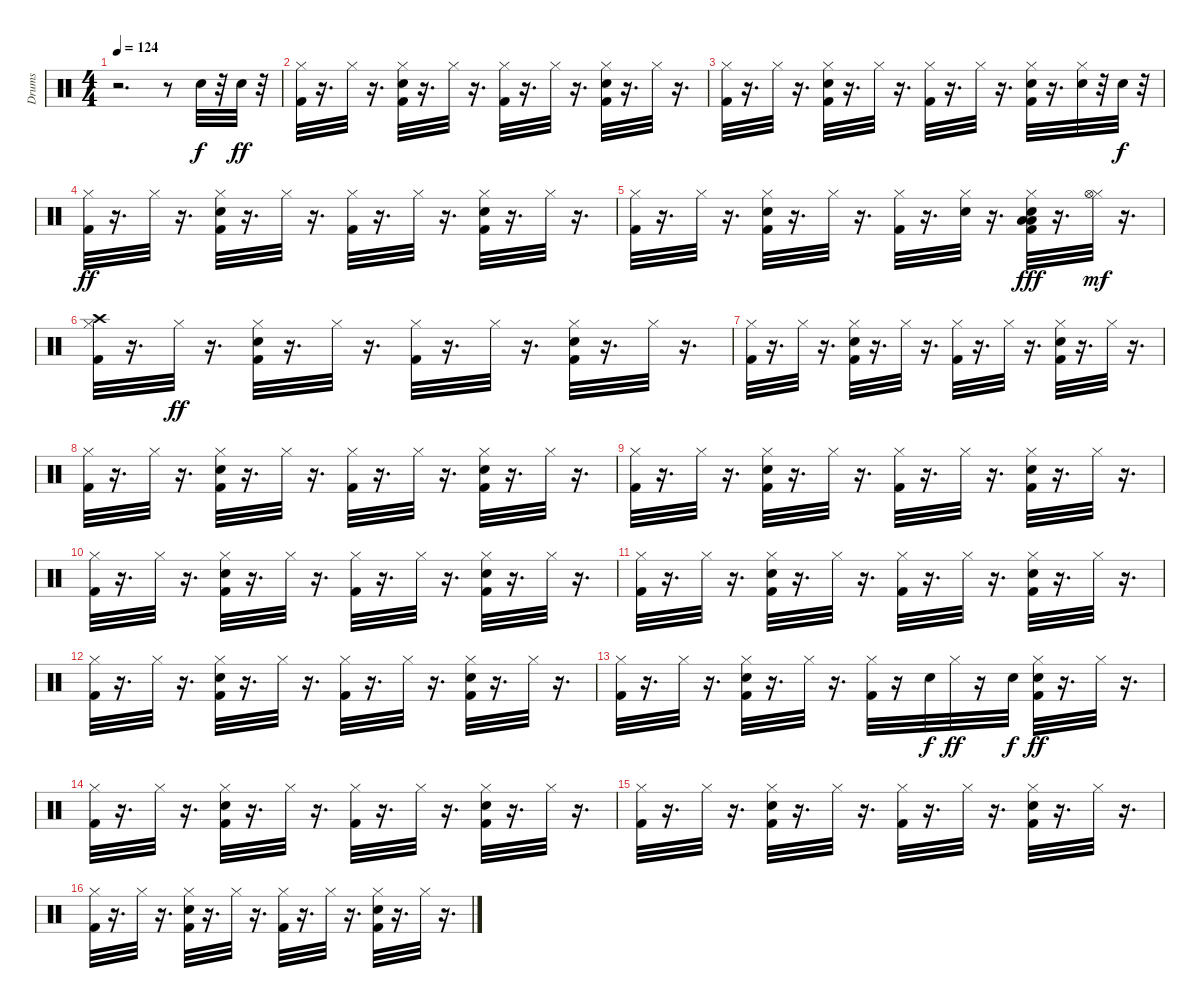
\track ("Drums" "Drums") {instrument percussion}
\staff {score}
\articulation defaults
\ts (4 4)
\tempo 124
\clef neutral
\ks c
r.2{d dy f} r.8 "Electric Snare (hit)".32 r.32 "Electric Snare (hit)".32{dy ff} r.32 |
("Kick (hit) 2" "Hi-Hat (closed)").32 r.16{d} "Hi-Hat (closed)".32 r.16{d} ("Kick (hit) 2" "Electric Snare (hit)" "Hi-Hat (closed)").32 r.16{d} "Hi-Hat (closed)".32 r.16{d} ("Kick (hit) 2" "Hi-Hat (closed)").32 r.16{d} "Hi-Hat (closed)".32 r.16{d} ("Kick (hit) 2" "Electric Snare (hit)" "Hi-Hat (closed)").32 r.16{d} "Hi-Hat (closed)".32 r.16{d} |
("Kick (hit) 2" "Hi-Hat (closed)").32 r.16{d} "Hi-Hat (closed)".32 r.16{d} ("Kick (hit) 2" "Electric Snare (hit)" "Hi-Hat (closed)").32 r.16{d} "Hi-Hat (closed)".32 r.16{d} ("Kick (hit) 2" "Hi-Hat (closed)").32 r.16{d} "Hi-Hat (closed)".32 r.16{d} ("Kick (hit) 2" "Electric Snare (hit)" "Hi-Hat (closed)").32 r.16{d} ("Electric Snare (hit)" "Hi-Hat (closed)").32 r.32 "Electric Snare (hit)".32{dy f} r.32 |
("Kick (hit) 2" "Hi-Hat (closed)").32{dy ff} r.16{d} "Hi-Hat (closed)".32 r.16{d} ("Kick (hit) 2" "Electric Snare (hit)" "Hi-Hat (closed)").32 r.16{d} "Hi-Hat (closed)".32 r.16{d} ("Kick (hit) 2" "Hi-Hat (closed)").32 r.16{d} "Hi-Hat (closed)".32 r.16{d} ("Kick (hit) 2" "Electric Snare (hit)" "Hi-Hat (closed)").32 r.16{d} "Hi-Hat (closed)".32 r.16{d} |
("Kick (hit) 2" "Hi-Hat (closed)").32 r.16{d} "Hi-Hat (closed)".32 r.16{d} ("Kick (hit) 2" "Electric Snare (hit)" "Hi-Hat (closed)").32 r.16{d} "Hi-Hat (closed)".32 r.16{d} ("Kick (hit) 2" "Hi-Hat (closed)").32 r.16{d} ("Electric Snare (hit)" "Hi-Hat (closed)").32 r.16{d} ("Kick (hit) 2" "Electric Snare (hit)" "Low Floor Tom (hit)" "Hi-Hat (closed)" "Low Tom (hit)").32{dy fff} r.16{d} ("Hi-Hat (closed)" "Hi-Hat (open)").32{dy mf} r.16{d} |
("Kick (hit) 2" "Hi-Hat (closed)" "Crash high (hit)").32 r.16{d} "Hi-Hat (closed)".32{dy ff} r.16{d} ("Kick (hit) 2" "Electric Snare (hit)" "Hi-Hat (closed)").32 r.16{d} "Hi-Hat (closed)".32 r.16{d} ("Kick (hit) 2" "Hi-Hat (closed)").32 r.16{d} "Hi-Hat (closed)".32 r.16{d} ("Kick (hit) 2" "Electric Snare (hit)" "Hi-Hat (closed)").32 r.16{d} "Hi-Hat (closed)".32 r.16{d} |
("Kick (hit) 2" "Hi-Hat (closed)").32 r.16{d} "Hi-Hat (closed)".32 r.16{d} ("Kick (hit) 2" "Electric Snare (hit)" "Hi-Hat (closed)").32 r.16{d} "Hi-Hat (closed)".32 r.16{d} ("Kick (hit) 2" "Hi-Hat (closed)").32 r.16{d} "Hi-Hat (closed)".32 r.16{d} ("Kick (hit) 2" "Electric Snare (hit)" "Hi-Hat (closed)").32 r.16{d} "Hi-Hat (closed)".32 r.16{d} |
("Kick (hit) 2" "Hi-Hat (closed)").32 r.16{d} "Hi-Hat (closed)".32 r.16{d} ("Kick (hit) 2" "Electric Snare (hit)" "Hi-Hat (closed)").32 r.16{d} "Hi-Hat (closed)".32 r.16{d} ("Kick (hit) 2" "Hi-Hat (closed)").32 r.16{d} "Hi-Hat (closed)".32 r.16{d} ("Kick (hit) 2" "Electric Snare (hit)" "Hi-Hat (closed)").32 r.16{d} "Hi-Hat (closed)".32 r.16{d} |
("Kick (hit) 2" "Hi-Hat (closed)").32 r.16{d} "Hi-Hat (closed)".32 r.16{d} ("Kick (hit) 2" "Electric Snare (hit)" "Hi-Hat (closed)").32 r.16{d} "Hi-Hat (closed)".32 r.16{d} ("Kick (hit) 2" "Hi-Hat (closed)").32 r.16{d} "Hi-Hat (closed)".32 r.16{d} ("Kick (hit) 2" "Electric Snare (hit)" "Hi-Hat (closed)").32 r.16{d} "Hi-Hat (closed)".32 r.16{d} |
("Kick (hit) 2" "Hi-Hat (closed)").32 r.16{d} "Hi-Hat (closed)".32 r.16{d} ("Kick (hit) 2" "Electric Snare (hit)" "Hi-Hat (closed)").32 r.16{d} "Hi-Hat (closed)".32 r.16{d} ("Kick (hit) 2" "Hi-Hat (closed)").32 r.16{d} "Hi-Hat (closed)".32 r.16{d} ("Kick (hit) 2" "Electric Snare (hit)" "Hi-Hat (closed)").32 r.16{d} "Hi-Hat (closed)".32 r.16{d} |
("Kick (hit) 2" "Hi-Hat (closed)").32 r.16{d} "Hi-Hat (closed)".32 r.16{d} ("Kick (hit) 2" "Electric Snare (hit)" "Hi-Hat (closed)").32 r.16{d} "Hi-Hat (closed)".32 r.16{d} ("Kick (hit) 2" "Hi-Hat (closed)").32 r.16{d} "Hi-Hat (closed)".32 r.16{d} ("Kick (hit) 2" "Electric Snare (hit)" "Hi-Hat (closed)").32 r.16{d} "Hi-Hat (closed)".32 r.16{d} |
("Kick (hit) 2" "Hi-Hat (closed)").32 r.16{d} "Hi-Hat (closed)".32 r.16{d} ("Kick (hit) 2" "Electric Snare (hit)" "Hi-Hat (closed)").32 r.16{d} "Hi-Hat (closed)".32 r.16{d} ("Kick (hit) 2" "Hi-Hat (closed)").32 r.16{d} "Hi-Hat (closed)".32 r.16{d} ("Kick (hit) 2" "Electric Snare (hit)" "Hi-Hat (closed)").32 r.16{d} "Hi-Hat (closed)".32 r.16{d} |
("Kick (hit) 2" "Hi-Hat (closed)").32 r.16{d} "Hi-Hat (closed)".32 r.16{d} ("Kick (hit) 2" "Electric Snare (hit)" "Hi-Hat (closed)").32 r.16{d} "Hi-Hat (closed)".32 r.16{d} ("Kick (hit) 2" "Hi-Hat (closed)").32 r.16 "Hand Clap (hit)".32{dy f} "Hi-Hat (closed)".32{dy ff} r.16 "Hand Clap (hit)".32{dy f} ("Kick (hit) 2" "Electric Snare (hit)" "Hi-Hat (closed)").32{dy ff} r.16{d} "Hi-Hat (closed)".32 r.16{d} |
("Kick (hit) 2" "Hi-Hat (closed)").32 r.16{d} "Hi-Hat (closed)".32 r.16{d} ("Kick (hit) 2" "Electric Snare (hit)" "Hi-Hat (closed)").32 r.16{d} "Hi-Hat (closed)".32 r.16{d} ("Kick (hit) 2" "Hi-Hat (closed)").32 r.16{d} "Hi-Hat (closed)".32 r.16{d} ("Kick (hit) 2" "Electric Snare (hit)" "Hi-Hat (closed)").32 r.16{d} "Hi-Hat (closed)".32 r.16{d} |
("Kick (hit) 2" "Hi-Hat (closed)").32 r.16{d} "Hi-Hat (closed)".32 r.16{d} ("Kick (hit) 2" "Electric Snare (hit)" "Hi-Hat (closed)").32 r.16{d} "Hi-Hat (closed)".32 r.16{d} ("Kick (hit) 2" "Hi-Hat (closed)").32 r.16{d} "Hi-Hat (closed)".32 r.16{d} ("Kick (hit) 2" "Electric Snare (hit)" "Hi-Hat (closed)").32 r.16{d} "Hi-Hat (closed)".32 r.16{d} |
("Kick (hit) 2" "Hi-Hat (closed)").32 r.16{d} "Hi-Hat (closed)".32 r.16{d} ("Kick (hit) 2" "Electric Snare (hit)" "Hi-Hat (closed)").32 r.16{d} "Hi-Hat (closed)".32 r.16{d} ("Kick (hit) 2" "Hi-Hat (closed)").32 r.16{d} "Hi-Hat (closed)".32 r.16{d} ("Kick (hit) 2" "Electric Snare (hit)" "Hi-Hat (closed)").32 r.16{d} "Hi-Hat (closed)".32 r.16{d}
